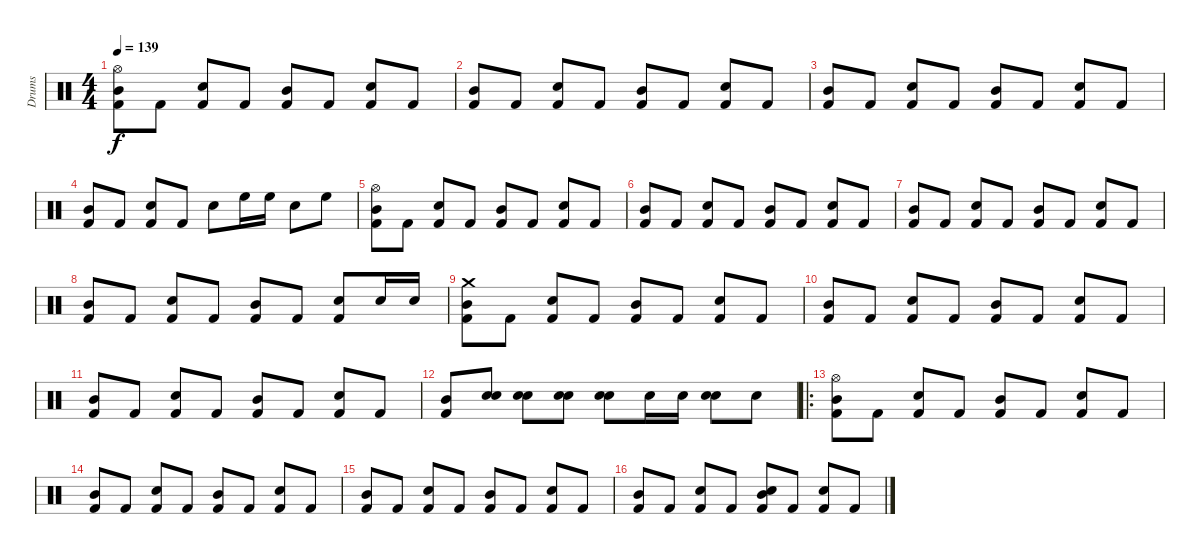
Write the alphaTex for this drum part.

\track ("Drums" "Drums") {instrument percussion}
\staff {score}
\articulation defaults
\ts (4 4)
\tempo 139
\clef neutral
\ks c
("Kick (hit) 2" "Mid Tom (hit)" "Hi-Hat (open)").8{dy f} "Kick (hit) 2".8 ("Electric Snare (hit)" "Kick (hit) 2").8 "Kick (hit) 2".8 ("Kick (hit) 2" "Mid Tom (hit)").8 "Kick (hit) 2".8 ("Electric Snare (hit)" "Kick (hit) 2").8 "Kick (hit) 2".8 |
("Kick (hit) 2" "Mid Tom (hit)").8 "Kick (hit) 2".8 ("Electric Snare (hit)" "Kick (hit) 2").8 "Kick (hit) 2".8 ("Kick (hit) 2" "Mid Tom (hit)").8 "Kick (hit) 2".8 ("Electric Snare (hit)" "Kick (hit) 2").8 "Kick (hit) 2".8 |
("Kick (hit) 2" "Mid Tom (hit)").8 "Kick (hit) 2".8 ("Electric Snare (hit)" "Kick (hit) 2").8 "Kick (hit) 2".8 ("Kick (hit) 2" "Mid Tom (hit)").8 "Kick (hit) 2".8 ("Electric Snare (hit)" "Kick (hit) 2").8 "Kick (hit) 2".8 |
("Kick (hit) 2" "Mid Tom (hit)").8 "Kick (hit) 2".8 ("Electric Snare (hit)" "Kick (hit) 2").8 "Kick (hit) 2".8 "Electric Snare (hit)".8 "High Floor Tom (hit)".16 "High Floor Tom (hit)".16 "Electric Snare (hit)".8 "High Floor Tom (hit)".8 |
("Kick (hit) 2" "Mid Tom (hit)" "Hi-Hat (open)").8 "Kick (hit) 2".8 ("Electric Snare (hit)" "Kick (hit) 2").8 "Kick (hit) 2".8 ("Kick (hit) 2" "Mid Tom (hit)").8 "Kick (hit) 2".8 ("Electric Snare (hit)" "Kick (hit) 2").8 "Kick (hit) 2".8 |
("Kick (hit) 2" "Mid Tom (hit)").8 "Kick (hit) 2".8 ("Electric Snare (hit)" "Kick (hit) 2").8 "Kick (hit) 2".8 ("Kick (hit) 2" "Mid Tom (hit)").8 "Kick (hit) 2".8 ("Electric Snare (hit)" "Kick (hit) 2").8 "Kick (hit) 2".8 |
("Kick (hit) 2" "Mid Tom (hit)").8 "Kick (hit) 2".8 ("Electric Snare (hit)" "Kick (hit) 2").8 "Kick (hit) 2".8 ("Kick (hit) 2" "Mid Tom (hit)").8 "Kick (hit) 2".8 ("Electric Snare (hit)" "Kick (hit) 2").8 "Kick (hit) 2".8 |
("Kick (hit) 2" "Mid Tom (hit)").8 "Kick (hit) 2".8 ("Electric Snare (hit)" "Kick (hit) 2").8 "Kick (hit) 2".8 ("Kick (hit) 2" "Mid Tom (hit)").8 "Kick (hit) 2".8 ("Electric Snare (hit)" "Kick (hit) 2").8 "Electric Snare (hit)".16 "Electric Snare (hit)".16 |
("Crash medium (hit)" "Kick (hit) 2" "Mid Tom (hit)").8 "Kick (hit) 2".8 ("Electric Snare (hit)" "Kick (hit) 2").8 "Kick (hit) 2".8 ("Kick (hit) 2" "Mid Tom (hit)").8 "Kick (hit) 2".8 ("Electric Snare (hit)" "Kick (hit) 2").8 "Kick (hit) 2".8 |
("Kick (hit) 2" "Mid Tom (hit)").8 "Kick (hit) 2".8 ("Electric Snare (hit)" "Kick (hit) 2").8 "Kick (hit) 2".8 ("Kick (hit) 2" "Mid Tom (hit)").8 "Kick (hit) 2".8 ("Electric Snare (hit)" "Kick (hit) 2").8 "Kick (hit) 2".8 |
("Kick (hit) 2" "Mid Tom (hit)").8 "Kick (hit) 2".8 ("Electric Snare (hit)" "Kick (hit) 2").8 "Kick (hit) 2".8 ("Kick (hit) 2" "Mid Tom (hit)").8 "Kick (hit) 2".8 ("Electric Snare (hit)" "Kick (hit) 2").8 "Kick (hit) 2".8 |
("Kick (hit) 2" "Mid Tom (hit)").8 ("Electric Snare (hit)" "Electric Snare (hit)").8 ("Electric Snare (hit)" "Electric Snare (hit)").8 ("Electric Snare (hit)" "Electric Snare (hit)").8 ("Electric Snare (hit)" "Electric Snare (hit)").8 "Electric Snare (hit)".16 "Electric Snare (hit)".16 ("Electric Snare (hit)" "Electric Snare (hit)").8 "Electric Snare (hit)".8 |
\ro
("Kick (hit) 2" "Mid Tom (hit)" "Hi-Hat (open)").8 "Kick (hit) 2".8 ("Electric Snare (hit)" "Kick (hit) 2").8 "Kick (hit) 2".8 ("Kick (hit) 2" "Mid Tom (hit)").8 "Kick (hit) 2".8 ("Electric Snare (hit)" "Kick (hit) 2").8 "Kick (hit) 2".8 |
("Kick (hit) 2" "Mid Tom (hit)").8 "Kick (hit) 2".8 ("Electric Snare (hit)" "Kick (hit) 2").8 "Kick (hit) 2".8 ("Kick (hit) 2" "Mid Tom (hit)").8 "Kick (hit) 2".8 ("Electric Snare (hit)" "Kick (hit) 2").8 "Kick (hit) 2".8 |
("Kick (hit) 2" "Mid Tom (hit)").8 "Kick (hit) 2".8 ("Electric Snare (hit)" "Kick (hit) 2").8 "Kick (hit) 2".8 ("Kick (hit) 2" "Mid Tom (hit)").8 "Kick (hit) 2".8 ("Electric Snare (hit)" "Kick (hit) 2").8 "Kick (hit) 2".8 |
("Kick (hit) 2" "Mid Tom (hit)").8 "Kick (hit) 2".8 ("Electric Snare (hit)" "Kick (hit) 2").8 "Kick (hit) 2".8 ("Electric Snare (hit)" "Kick (hit) 2" "Mid Tom (hit)").8 "Kick (hit) 2".8 ("Electric Snare (hit)" "Kick (hit) 2").8 "Kick (hit) 2".8
